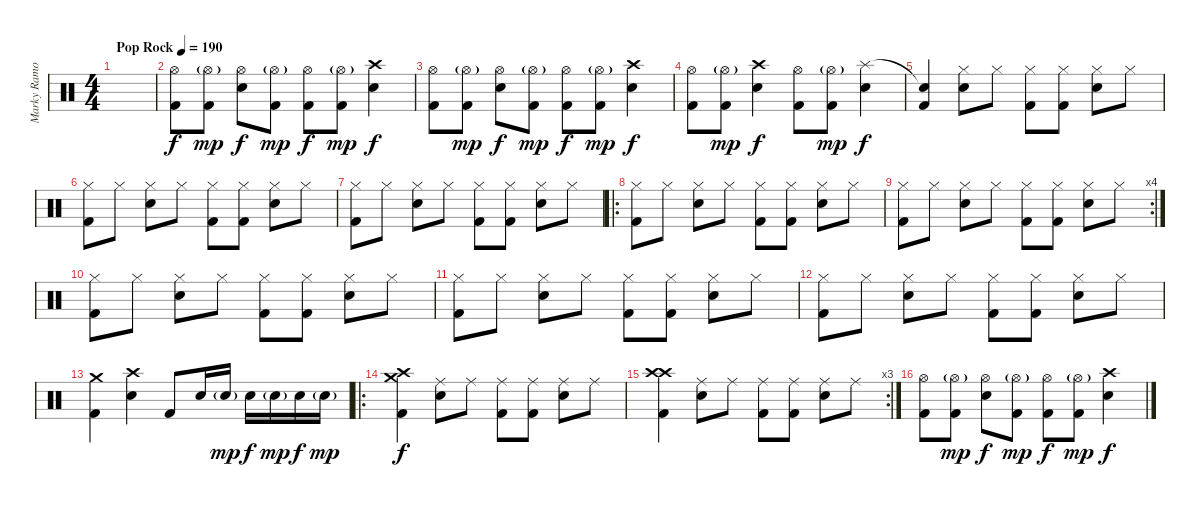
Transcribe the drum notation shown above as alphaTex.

\track ("Marky Ramone" "Marky Ramo") {instrument percussion}
\staff {score}
\articulation defaults
\ts (4 4)
\tempo (190 "Pop Rock")
\clef neutral
\ks c
|
("Hi-Hat (open)" "Kick (hit) 2").8 ("Hi-Hat (open)"{g} "Kick (hit) 2").8{dy mp} ("Hi-Hat (open)" "Electric Snare (hit)").8{dy f} ("Hi-Hat (open)"{g} "Kick (hit) 2").8{dy mp} ("Hi-Hat (open)" "Kick (hit) 2").8{dy f} ("Hi-Hat (open)"{g} "Kick (hit) 2").8{dy mp} ("Crash high (hit)" "Electric Snare (hit)").4{dy f} |
("Hi-Hat (open)" "Kick (hit) 2").8 ("Hi-Hat (open)"{g} "Kick (hit) 2").8{dy mp} ("Hi-Hat (open)" "Electric Snare (hit)").8{dy f} ("Hi-Hat (open)"{g} "Kick (hit) 2").8{dy mp} ("Hi-Hat (open)" "Kick (hit) 2").8{dy f} ("Hi-Hat (open)"{g} "Kick (hit) 2").8{dy mp} ("Crash high (hit)" "Electric Snare (hit)").4{dy f} |
("Hi-Hat (open)" "Kick (hit) 2").8 ("Hi-Hat (open)"{g} "Kick (hit) 2").8{dy mp} ("Crash high (hit)" "Electric Snare (hit)").4{dy f} ("Hi-Hat (open)" "Kick (hit) 2").8 ("Hi-Hat (open)"{g} "Kick (hit) 2").8{dy mp} ("Splash (hit)" "Electric Snare (hit)").4{dy f} |
("Snare (hit)"{t} "Kick (hit) 2").4 ("Hi-Hat (closed)" "Electric Snare (hit)").8 "Hi-Hat (closed)".8 ("Hi-Hat (closed)" "Kick (hit) 2").8 ("Hi-Hat (closed)" "Kick (hit) 2").8 ("Hi-Hat (closed)" "Electric Snare (hit)").8 "Hi-Hat (closed)".8 |
("Hi-Hat (closed)" "Kick (hit) 2").8 "Hi-Hat (closed)".8 ("Hi-Hat (closed)" "Electric Snare (hit)").8 "Hi-Hat (closed)".8 ("Hi-Hat (closed)" "Kick (hit) 2").8 ("Hi-Hat (closed)" "Kick (hit) 2").8 ("Hi-Hat (closed)" "Electric Snare (hit)").8 "Hi-Hat (closed)".8 |
("Hi-Hat (closed)" "Kick (hit) 2").8 "Hi-Hat (closed)".8 ("Hi-Hat (closed)" "Electric Snare (hit)").8 "Hi-Hat (closed)".8 ("Hi-Hat (closed)" "Kick (hit) 2").8 ("Hi-Hat (closed)" "Kick (hit) 2").8 ("Hi-Hat (closed)" "Electric Snare (hit)").8 "Hi-Hat (closed)".8 |
\ro
("Hi-Hat (closed)" "Kick (hit) 2").8 "Hi-Hat (closed)".8 ("Hi-Hat (closed)" "Electric Snare (hit)").8 "Hi-Hat (closed)".8 ("Hi-Hat (closed)" "Kick (hit) 2").8 ("Hi-Hat (closed)" "Kick (hit) 2").8 ("Hi-Hat (closed)" "Electric Snare (hit)").8 "Hi-Hat (closed)".8 |
\rc 4
("Hi-Hat (closed)" "Kick (hit) 2").8 "Hi-Hat (closed)".8 ("Hi-Hat (closed)" "Electric Snare (hit)").8 "Hi-Hat (closed)".8 ("Hi-Hat (closed)" "Kick (hit) 2").8 ("Hi-Hat (closed)" "Kick (hit) 2").8 ("Hi-Hat (closed)" "Electric Snare (hit)").8 "Hi-Hat (closed)".8 |
("Hi-Hat (closed)" "Kick (hit) 2").8 "Hi-Hat (closed)".8 ("Hi-Hat (closed)" "Electric Snare (hit)").8 "Hi-Hat (closed)".8 ("Hi-Hat (closed)" "Kick (hit) 2").8 ("Hi-Hat (closed)" "Kick (hit) 2").8 ("Hi-Hat (closed)" "Electric Snare (hit)").8 "Hi-Hat (closed)".8 |
("Hi-Hat (closed)" "Kick (hit) 2").8 "Hi-Hat (closed)".8 ("Hi-Hat (closed)" "Electric Snare (hit)").8 "Hi-Hat (closed)".8 ("Hi-Hat (closed)" "Kick (hit) 2").8 ("Hi-Hat (closed)" "Kick (hit) 2").8 ("Hi-Hat (closed)" "Electric Snare (hit)").8 "Hi-Hat (closed)".8 |
("Hi-Hat (closed)" "Kick (hit) 2").8 "Hi-Hat (closed)".8 ("Hi-Hat (closed)" "Electric Snare (hit)").8 "Hi-Hat (closed)".8 ("Hi-Hat (closed)" "Kick (hit) 2").8 ("Hi-Hat (closed)" "Kick (hit) 2").8 ("Hi-Hat (closed)" "Electric Snare (hit)").8 "Hi-Hat (closed)".8 |
("Crash medium (hit)" "Kick (hit) 2").4 ("Crash high (hit)" "Electric Snare (hit)").4 "Kick (hit) 2".8 "Electric Snare (hit)".16 "Electric Snare (hit)"{g}.16{dy mp} "Electric Snare (hit)".16{dy f} "Electric Snare (hit)"{g}.16{dy mp} "Electric Snare (hit)".16{dy f} "Electric Snare (hit)"{g}.16{dy mp} |
\ro
("Crash medium (hit)" "Crash high (hit)" "Kick (hit) 2").4{dy f} ("Ride (middle)" "Electric Snare (hit)").8 "Ride (middle)".8 ("Ride (middle)" "Kick (hit) 2").8 ("Ride (middle)" "Kick (hit) 2").8 ("Ride (middle)" "Electric Snare (hit)").8 "Ride (middle)".8 |
\rc 3
("Crash high (hit)" "Crash high (hit)" "Kick (hit) 2").4 ("Ride (middle)" "Electric Snare (hit)").8 "Ride (middle)".8 ("Ride (middle)" "Kick (hit) 2").8 ("Ride (middle)" "Kick (hit) 2").8 ("Ride (middle)" "Electric Snare (hit)").8 "Ride (middle)".8 |
("Hi-Hat (open)" "Kick (hit) 2").8 ("Hi-Hat (open)"{g} "Kick (hit) 2").8{dy mp} ("Hi-Hat (open)" "Electric Snare (hit)").8{dy f} ("Hi-Hat (open)"{g} "Kick (hit) 2").8{dy mp} ("Hi-Hat (open)" "Kick (hit) 2").8{dy f} ("Hi-Hat (open)"{g} "Kick (hit) 2").8{dy mp} ("Crash high (hit)" "Electric Snare (hit)").4{dy f}
